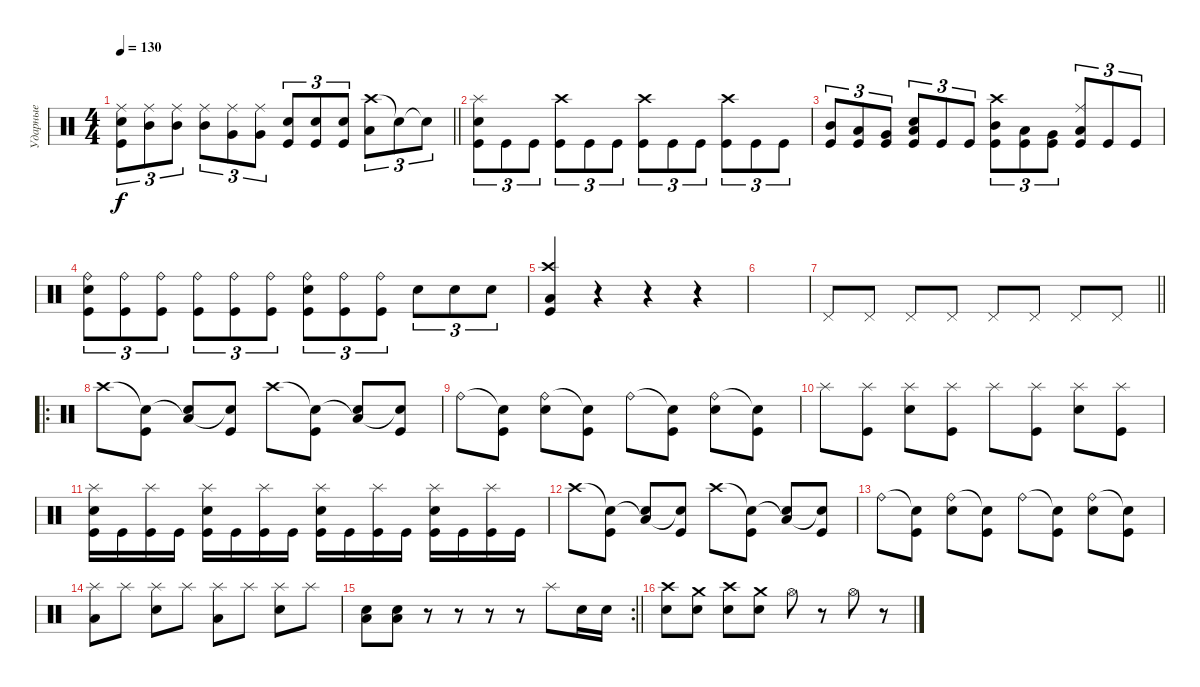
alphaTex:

\track ("Ударные" "Ударные") {instrument percussion}
\staff {score}
\articulation defaults
\ts (4 4)
\tempo 130
\clef neutral
\barLineRight lightlight
\ks c
("Electric Snare (hit)" "Kick (hit)" "Ride (middle)").8{tu (3 2) dy f} ("Mid Tom (hit)" "Ride (middle)").8{tu (3 2)} ("Mid Tom (hit)" "Ride (middle)").8{tu (3 2)} ("Mid Tom (hit)" "Ride (middle)").8{tu (3 2)} ("Very Low Tom (hit)" "Ride (middle)").8{tu (3 2)} ("Very Low Tom (hit)" "Ride (middle)").8{tu (3 2)} ("Electric Snare (hit)" "Kick (hit)").8{tu (3 2)} ("Electric Snare (hit)" "Kick (hit)").8{tu (3 2)} ("Electric Snare (hit)" "Kick (hit)").8{tu (3 2)} ("Crash high (hit)" "Low Floor Tom (hit)").8{tu (3 2)} "Snare (hit)"{t}.8{tu (3 2)} "Snare (hit)"{t}.8{tu (3 2)} |
("Electric Snare (hit)" "Splash (hit)" "Kick (hit)").8{tu (3 2)} "Kick (hit)".8{tu (3 2)} "Kick (hit)".8{tu (3 2)} ("Crash high (hit)" "Kick (hit)").8{tu (3 2)} "Kick (hit)".8{tu (3 2)} "Kick (hit)".8{tu (3 2)} ("Crash high (hit)" "Kick (hit)").8{tu (3 2)} "Kick (hit)".8{tu (3 2)} "Kick (hit)".8{tu (3 2)} ("Crash high (hit)" "Kick (hit)").8{tu (3 2)} "Kick (hit)".8{tu (3 2)} "Kick (hit)".8{tu (3 2)} |
("Mid Tom (hit)" "Kick (hit)").8{tu (3 2)} ("Low Tom (hit)" "Kick (hit)").8{tu (3 2)} ("Very Low Tom (hit)" "Kick (hit)").8{tu (3 2)} ("Electric Snare (hit)" "Low Floor Tom (hit)" "Kick (hit)").8{tu (3 2)} "Kick (hit)".8{tu (3 2)} "Kick (hit)".8{tu (3 2)} ("Mid Tom (hit)" "Crash high (hit)" "Kick (hit)").8{tu (3 2)} ("Low Tom (hit)" "Kick (hit)").8{tu (3 2)} ("Very Low Tom (hit)" "Kick (hit)").8{tu (3 2)} ("Low Floor Tom (hit)" "Ride (middle)" "Kick (hit)").8{tu (3 2)} "Kick (hit)".8{tu (3 2)} "Kick (hit)".8{tu (3 2)} |
("Electric Snare (hit)" "Kick (hit)" "Ride (bell)").8{tu (3 2)} ("Kick (hit)" "Ride (bell)").8{tu (3 2)} ("Kick (hit)" "Ride (bell)").8{tu (3 2)} ("Kick (hit)" "Ride (bell)").8{tu (3 2)} ("Kick (hit)" "Ride (bell)").8{tu (3 2)} ("Kick (hit)" "Ride (bell)").8{tu (3 2)} ("Electric Snare (hit)" "Kick (hit)" "Ride (bell)").8{tu (3 2)} ("Kick (hit)" "Ride (bell)").8{tu (3 2)} ("Kick (hit)" "Ride (bell)").8{tu (3 2)} "Electric Snare (hit)".8{tu (3 2)} "Electric Snare (hit)".8{tu (3 2)} "Electric Snare (hit)".8{tu (3 2)} |
("Crash high (hit)" "Low Floor Tom (hit)" "Kick (hit)").4 r.4 r.4 r.4 |
|
\barLineRight lightlight "Pedal Hi-Hat (hit)".8 "Pedal Hi-Hat (hit)".8 "Pedal Hi-Hat (hit)".8 "Pedal Hi-Hat (hit)".8 "Pedal Hi-Hat (hit)".8 "Pedal Hi-Hat (hit)".8 "Pedal Hi-Hat (hit)".8 "Pedal Hi-Hat (hit)".8
|
\ro "Crash high (hit)".8
("Snare (hit)"{t} "Kick (hit)").8 ("Low Floor Tom (hit)"{t} "Electric Snare (hit)").8 ("Snare (hit)"{t} "Kick (hit)").8 "Crash high (hit)".8 ("Snare (hit)"{t} "Kick (hit)").8 ("Low Floor Tom (hit)"{t} "Electric Snare (hit)").8 ("Snare (hit)"{t} "Kick (hit)").8 |
"Ride (bell)".8 ("Snare (hit)"{t} "Kick (hit)").8 ("Ride (bell)" "Electric Snare (hit)").8 ("Snare (hit)"{t} "Kick (hit)").8 "Ride (bell)".8 ("Snare (hit)"{t} "Kick (hit)").8 ("Ride (bell)" "Electric Snare (hit)").8 ("Snare (hit)"{t} "Kick (hit)").8 |
"Splash (hit)".8 ("Splash (hit)" "Kick (hit)").8 ("Splash (hit)" "Electric Snare (hit)").8 ("Splash (hit)" "Kick (hit)").8 "Splash (hit)".8 ("Splash (hit)" "Kick (hit)").8 ("Splash (hit)" "Electric Snare (hit)").8 ("Splash (hit)" "Kick (hit)").8 |
("Splash (hit)" "Electric Snare (hit)" "Kick (hit)").16 "Kick (hit)".16 ("Splash (hit)" "Kick (hit)").16 "Kick (hit)".16 ("Splash (hit)" "Electric Snare (hit)" "Kick (hit)").16 "Kick (hit)".16 ("Splash (hit)" "Kick (hit)").16 "Kick (hit)".16 ("Splash (hit)" "Electric Snare (hit)" "Kick (hit)").16 "Kick (hit)".16 ("Splash (hit)" "Kick (hit)").16 "Kick (hit)".16 ("Splash (hit)" "Electric Snare (hit)" "Kick (hit)").16 "Kick (hit)".16 ("Splash (hit)" "Kick (hit)").16 "Kick (hit)".16 |
"Crash high (hit)".8 ("Snare (hit)"{t} "Kick (hit)").8 ("Low Floor Tom (hit)"{t} "Electric Snare (hit)").8 ("Snare (hit)"{t} "Kick (hit)").8 "Crash high (hit)".8 ("Snare (hit)"{t} "Kick (hit)").8 ("Low Floor Tom (hit)"{t} "Electric Snare (hit)").8 ("Snare (hit)"{t} "Kick (hit)").8 |
"Ride (bell)".8 ("Snare (hit)"{t} "Kick (hit)").8 ("Ride (bell)" "Electric Snare (hit)").8 ("Snare (hit)"{t} "Kick (hit)").8 "Ride (bell)".8 ("Snare (hit)"{t} "Kick (hit)").8 ("Ride (bell)" "Electric Snare (hit)").8 ("Snare (hit)"{t} "Kick (hit)").8 |
("Splash (hit)" "Low Floor Tom (hit)").8 "Splash (hit)".8 ("Splash (hit)" "Electric Snare (hit)").8 "Splash (hit)".8 ("Splash (hit)" "Low Floor Tom (hit)").8 "Splash (hit)".8 ("Splash (hit)" "Electric Snare (hit)").8 "Splash (hit)".8 |
\rc 2
\barLineRight lightlight
("Low Floor Tom (hit)" "Electric Snare (hit)").8 ("Low Floor Tom (hit)" "Electric Snare (hit)").8 r.8 r.8 r.8 r.8 "Splash (hit)".8 "Electric Snare (hit)".16 "Electric Snare (hit)".16 |
("Electric Snare (hit)" "Crash high (hit)").8 ("Electric Snare (hit)" "Crash medium (hit)").8 ("Electric Snare (hit)" "Crash high (hit)").8 ("Electric Snare (hit)" "Crash medium (hit)").8 "Hi-Hat (open)".8 r.8 "Hi-Hat (open)".8 r.8
